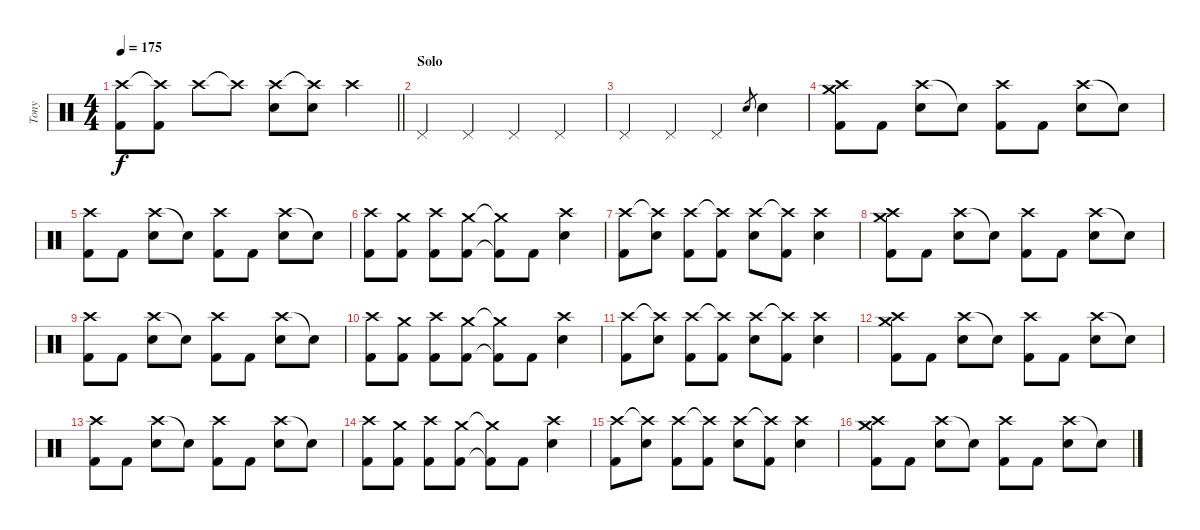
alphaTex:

\track ("Tony" "Tony") {instrument percussion}
\staff {score}
\articulation defaults
\ts (4 4)
\tempo 175
\clef neutral
\barLineRight lightlight
\ks c
("Crash high (hit)" "Kick (hit) 2").8{dy f} ("Crash high (hit)"{t} "Kick (hit) 2").8 "Crash high (hit)".8 "Crash high (hit)"{t}.8 ("Crash high (hit)" "Snare (hit) 2").8 ("Crash high (hit)"{t} "Snare (hit) 2").8 "Crash high (hit)".4 |
\section ("" "Solo")
"Pedal Hi-Hat (hit)".4 "Pedal Hi-Hat (hit)".4 "Pedal Hi-Hat (hit)".4 "Pedal Hi-Hat (hit)".4 |
"Pedal Hi-Hat (hit)".4 "Pedal Hi-Hat (hit)".4 "Pedal Hi-Hat (hit)".4 "Snare (hit) 2".8{gr} "Snare (hit) 2".4 |
("Crash high (hit)" "Crash medium (hit)" "Kick (hit) 2").8 "Kick (hit) 2".8 ("Crash high (hit)" "Snare (hit) 2").8 "Snare (hit) 2"{t}.8 ("Crash high (hit)" "Kick (hit) 2").8 "Kick (hit) 2".8 ("Crash high (hit)" "Snare (hit) 2").8 "Snare (hit) 2"{t}.8 |
("Crash high (hit)" "Kick (hit) 2").8 "Kick (hit) 2".8 ("Crash high (hit)" "Snare (hit) 2").8 "Snare (hit) 2"{t}.8 ("Crash high (hit)" "Kick (hit) 2").8 "Kick (hit) 2".8 ("Crash high (hit)" "Snare (hit) 2").8 "Snare (hit) 2"{t}.8 |
("Crash high (hit)" "Kick (hit) 2").8 ("Crash medium (hit)" "Kick (hit) 2").8 ("Crash high (hit)" "Kick (hit) 2").8 ("Crash medium (hit)" "Kick (hit) 2").8 ("Crash medium (hit)"{t} "Kick (hit) 2"{t}).8 "Kick (hit) 2".8 ("Crash high (hit)" "Snare (hit) 2").4 |
("Crash high (hit)" "Kick (hit) 2").8 ("Crash high (hit)"{t} "Snare (hit) 2").8 ("Crash high (hit)" "Kick (hit) 2").8 ("Crash high (hit)"{t} "Kick (hit) 2").8 ("Crash high (hit)" "Snare (hit) 2").8 ("Crash high (hit)"{t} "Kick (hit) 2").8 ("Crash high (hit)" "Snare (hit) 2").4 |
("Crash high (hit)" "Crash medium (hit)" "Kick (hit) 2").8 "Kick (hit) 2".8 ("Crash high (hit)" "Snare (hit) 2").8 "Snare (hit) 2"{t}.8 ("Crash high (hit)" "Kick (hit) 2").8 "Kick (hit) 2".8 ("Crash high (hit)" "Snare (hit) 2").8 "Snare (hit) 2"{t}.8 |
("Crash high (hit)" "Kick (hit) 2").8 "Kick (hit) 2".8 ("Crash high (hit)" "Snare (hit) 2").8 "Snare (hit) 2"{t}.8 ("Crash high (hit)" "Kick (hit) 2").8 "Kick (hit) 2".8 ("Crash high (hit)" "Snare (hit) 2").8 "Snare (hit) 2"{t}.8 |
("Crash high (hit)" "Kick (hit) 2").8 ("Crash medium (hit)" "Kick (hit) 2").8 ("Crash high (hit)" "Kick (hit) 2").8 ("Crash medium (hit)" "Kick (hit) 2").8 ("Crash medium (hit)"{t} "Kick (hit) 2"{t}).8 "Kick (hit) 2".8 ("Crash high (hit)" "Snare (hit) 2").4 |
("Crash high (hit)" "Kick (hit) 2").8 ("Crash high (hit)"{t} "Snare (hit) 2").8 ("Crash high (hit)" "Kick (hit) 2").8 ("Crash high (hit)"{t} "Kick (hit) 2").8 ("Crash high (hit)" "Snare (hit) 2").8 ("Crash high (hit)"{t} "Kick (hit) 2").8 ("Crash high (hit)" "Snare (hit) 2").4 |
("Crash high (hit)" "Crash medium (hit)" "Kick (hit) 2").8 "Kick (hit) 2".8 ("Crash high (hit)" "Snare (hit) 2").8 "Snare (hit) 2"{t}.8 ("Crash high (hit)" "Kick (hit) 2").8 "Kick (hit) 2".8 ("Crash high (hit)" "Snare (hit) 2").8 "Snare (hit) 2"{t}.8 |
("Crash high (hit)" "Kick (hit) 2").8 "Kick (hit) 2".8 ("Crash high (hit)" "Snare (hit) 2").8 "Snare (hit) 2"{t}.8 ("Crash high (hit)" "Kick (hit) 2").8 "Kick (hit) 2".8 ("Crash high (hit)" "Snare (hit) 2").8 "Snare (hit) 2"{t}.8 |
("Crash high (hit)" "Kick (hit) 2").8 ("Crash medium (hit)" "Kick (hit) 2").8 ("Crash high (hit)" "Kick (hit) 2").8 ("Crash medium (hit)" "Kick (hit) 2").8 ("Crash medium (hit)"{t} "Kick (hit) 2"{t}).8 "Kick (hit) 2".8 ("Crash high (hit)" "Snare (hit) 2").4 |
("Crash high (hit)" "Kick (hit) 2").8 ("Crash high (hit)"{t} "Snare (hit) 2").8 ("Crash high (hit)" "Kick (hit) 2").8 ("Crash high (hit)"{t} "Kick (hit) 2").8 ("Crash high (hit)" "Snare (hit) 2").8 ("Crash high (hit)"{t} "Kick (hit) 2").8 ("Crash high (hit)" "Snare (hit) 2").4 |
("Crash high (hit)" "Crash medium (hit)" "Kick (hit) 2").8 "Kick (hit) 2".8 ("Crash high (hit)" "Snare (hit) 2").8 "Snare (hit) 2"{t}.8 ("Crash high (hit)" "Kick (hit) 2").8 "Kick (hit) 2".8 ("Crash high (hit)" "Snare (hit) 2").8 "Snare (hit) 2"{t}.8
